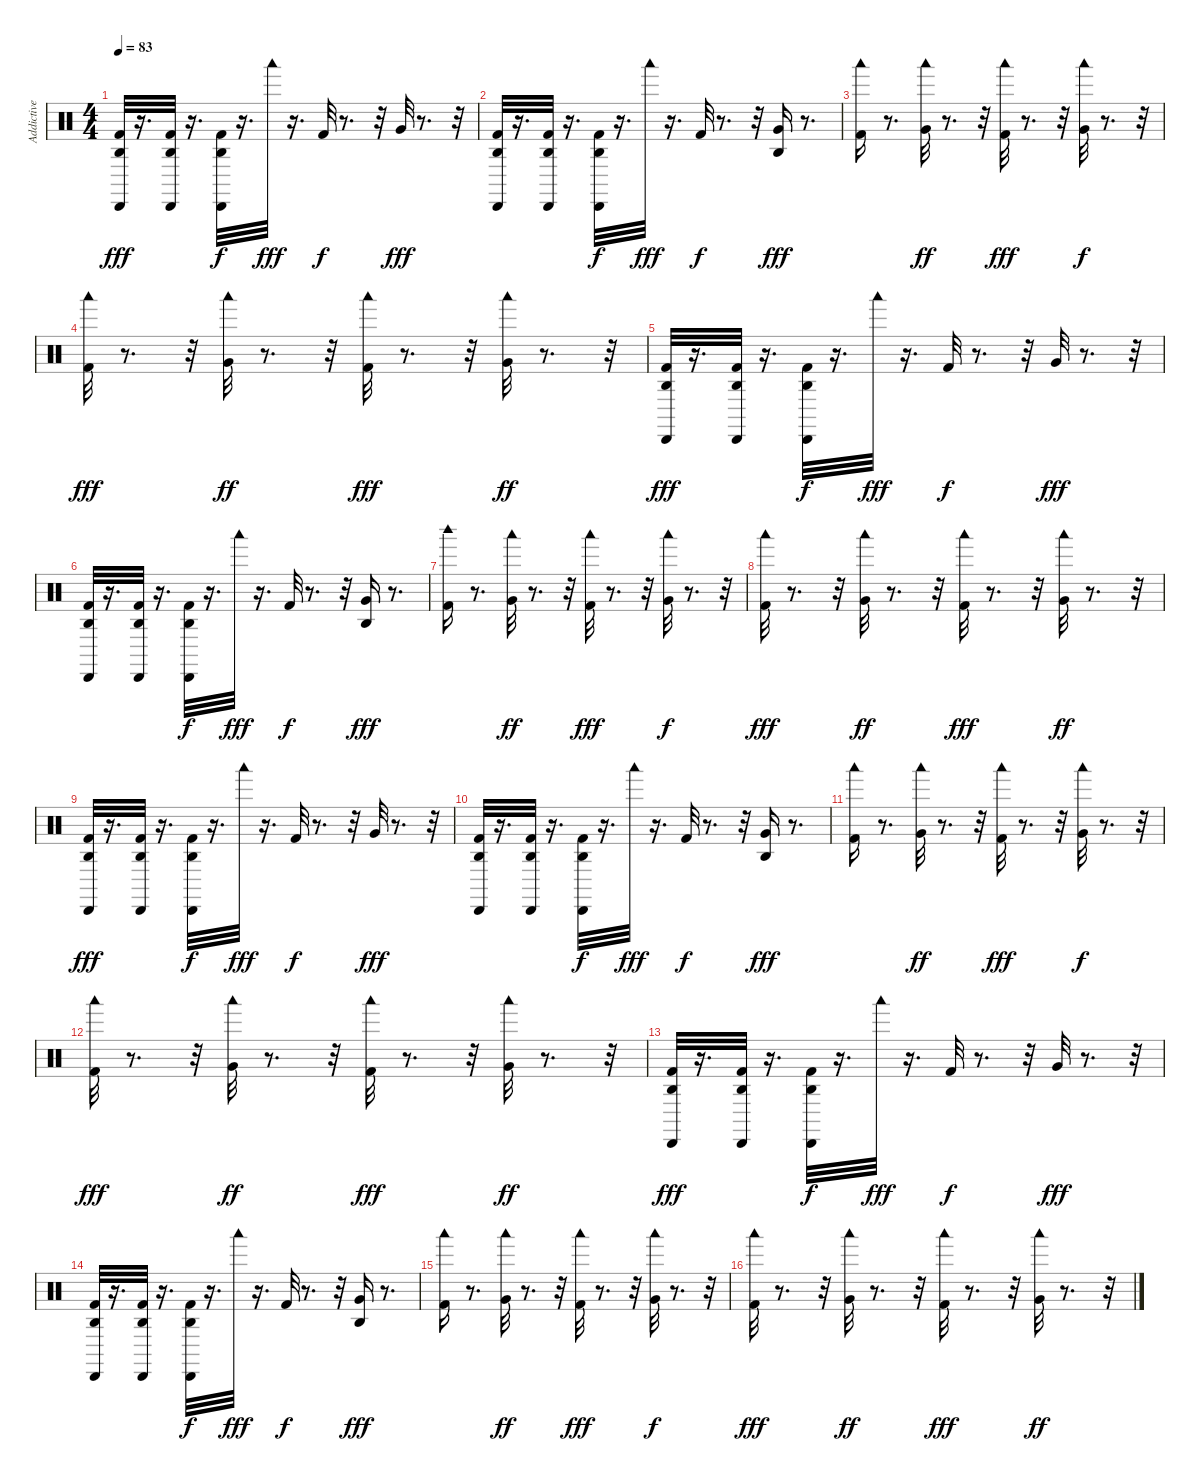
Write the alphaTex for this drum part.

\track ("Addictive Drums 2 01" "Addictive ") {instrument percussion}
\staff {score}
\articulation defaults
\ts (4 4)
\tempo 83
\clef neutral
\ks c
("Kick (hit) 2" "Cabasa (hit)" "Agogo high (hit)").32{dy fff} r.16{d} ("Kick (hit) 2" "Cabasa (hit)" "Agogo high (hit)").32 r.16{d} ("Cabasa (hit)" "Kick (hit) 2" "Agogo high (hit)").32{dy f} r.16{d} "Woodblock low (hit)".32{dy fff} r.16{d} "Kick (hit) 2".32{dy f} r.8{d} r.32 "Very Low Tom (hit)".32{dy fff} r.8{d} r.32 |
("Kick (hit) 2" "Cabasa (hit)" "Agogo high (hit)").32 r.16{d} ("Kick (hit) 2" "Cabasa (hit)" "Agogo high (hit)").32 r.16{d} ("Cabasa (hit)" "Kick (hit) 2" "Agogo high (hit)").32{dy f} r.16{d} "Woodblock low (hit)".32{dy fff} r.16{d} "Kick (hit) 2".32{dy f} r.8{d} r.32 ("Very Low Tom (hit)" "Agogo high (hit)").16{dy fff} r.8{d} |
("Woodblock low (hit)" "Kick (hit) 2").16 r.8{d} ("Woodblock low (hit)" "Very Low Tom (hit)").32{dy ff} r.8{d} r.32 ("Kick (hit) 2" "Woodblock low (hit)").32{dy fff} r.8{d} r.32 ("Very Low Tom (hit)" "Woodblock low (hit)").32{dy f} r.8{d} r.32 |
("Woodblock low (hit)" "Kick (hit) 2").32{dy fff} r.8{d} r.32 ("Very Low Tom (hit)" "Woodblock low (hit)").32{dy ff} r.8{d} r.32 ("Kick (hit) 2" "Woodblock low (hit)").32{dy fff} r.8{d} r.32 ("Very Low Tom (hit)" "Woodblock low (hit)").32{dy ff} r.8{d} r.32 |
("Kick (hit) 2" "Cabasa (hit)" "Agogo high (hit)").32{dy fff} r.16{d} ("Kick (hit) 2" "Cabasa (hit)" "Agogo high (hit)").32 r.16{d} ("Cabasa (hit)" "Kick (hit) 2" "Agogo high (hit)").32{dy f} r.16{d} "Woodblock low (hit)".32{dy fff} r.16{d} "Kick (hit) 2".32{dy f} r.8{d} r.32 "Very Low Tom (hit)".32{dy fff} r.8{d} r.32 |
("Kick (hit) 2" "Cabasa (hit)" "Agogo high (hit)").32 r.16{d} ("Kick (hit) 2" "Cabasa (hit)" "Agogo high (hit)").32 r.16{d} ("Cabasa (hit)" "Kick (hit) 2" "Agogo high (hit)").32{dy f} r.16{d} "Woodblock low (hit)".32{dy fff} r.16{d} "Kick (hit) 2".32{dy f} r.8{d} r.32 ("Very Low Tom (hit)" "Agogo high (hit)").16{dy fff} r.8{d} |
("Woodblock high (hit)" "Kick (hit) 2").16 r.8{d} ("Woodblock low (hit)" "Very Low Tom (hit)").32{dy ff} r.8{d} r.32 ("Kick (hit) 2" "Woodblock low (hit)").32{dy fff} r.8{d} r.32 ("Very Low Tom (hit)" "Woodblock low (hit)").32{dy f} r.8{d} r.32 |
("Woodblock low (hit)" "Kick (hit) 2").32{dy fff} r.8{d} r.32 ("Very Low Tom (hit)" "Woodblock low (hit)").32{dy ff} r.8{d} r.32 ("Kick (hit) 2" "Woodblock low (hit)").32{dy fff} r.8{d} r.32 ("Very Low Tom (hit)" "Woodblock low (hit)").32{dy ff} r.8{d} r.32 |
("Kick (hit) 2" "Cabasa (hit)" "Agogo high (hit)").32{dy fff} r.16{d} ("Kick (hit) 2" "Cabasa (hit)" "Agogo high (hit)").32 r.16{d} ("Cabasa (hit)" "Kick (hit) 2" "Agogo high (hit)").32{dy f} r.16{d} "Woodblock low (hit)".32{dy fff} r.16{d} "Kick (hit) 2".32{dy f} r.8{d} r.32 "Very Low Tom (hit)".32{dy fff} r.8{d} r.32 |
("Kick (hit) 2" "Cabasa (hit)" "Agogo high (hit)").32 r.16{d} ("Kick (hit) 2" "Cabasa (hit)" "Agogo high (hit)").32 r.16{d} ("Cabasa (hit)" "Kick (hit) 2" "Agogo high (hit)").32{dy f} r.16{d} "Woodblock low (hit)".32{dy fff} r.16{d} "Kick (hit) 2".32{dy f} r.8{d} r.32 ("Very Low Tom (hit)" "Agogo high (hit)").16{dy fff} r.8{d} |
("Woodblock low (hit)" "Kick (hit) 2").16 r.8{d} ("Woodblock low (hit)" "Very Low Tom (hit)").32{dy ff} r.8{d} r.32 ("Kick (hit) 2" "Woodblock low (hit)").32{dy fff} r.8{d} r.32 ("Very Low Tom (hit)" "Woodblock low (hit)").32{dy f} r.8{d} r.32 |
("Woodblock low (hit)" "Kick (hit) 2").32{dy fff} r.8{d} r.32 ("Very Low Tom (hit)" "Woodblock low (hit)").32{dy ff} r.8{d} r.32 ("Kick (hit) 2" "Woodblock low (hit)").32{dy fff} r.8{d} r.32 ("Very Low Tom (hit)" "Woodblock low (hit)").32{dy ff} r.8{d} r.32 |
("Kick (hit) 2" "Cabasa (hit)" "Agogo high (hit)").32{dy fff} r.16{d} ("Kick (hit) 2" "Cabasa (hit)" "Agogo high (hit)").32 r.16{d} ("Cabasa (hit)" "Kick (hit) 2" "Agogo high (hit)").32{dy f} r.16{d} "Woodblock low (hit)".32{dy fff} r.16{d} "Kick (hit) 2".32{dy f} r.8{d} r.32 "Very Low Tom (hit)".32{dy fff} r.8{d} r.32 |
("Kick (hit) 2" "Cabasa (hit)" "Agogo high (hit)").32 r.16{d} ("Kick (hit) 2" "Cabasa (hit)" "Agogo high (hit)").32 r.16{d} ("Cabasa (hit)" "Kick (hit) 2" "Agogo high (hit)").32{dy f} r.16{d} "Woodblock low (hit)".32{dy fff} r.16{d} "Kick (hit) 2".32{dy f} r.8{d} r.32 ("Very Low Tom (hit)" "Agogo high (hit)").16{dy fff} r.8{d} |
("Woodblock low (hit)" "Kick (hit) 2").16 r.8{d} ("Woodblock low (hit)" "Very Low Tom (hit)").32{dy ff} r.8{d} r.32 ("Kick (hit) 2" "Woodblock low (hit)").32{dy fff} r.8{d} r.32 ("Very Low Tom (hit)" "Woodblock low (hit)").32{dy f} r.8{d} r.32 |
("Woodblock low (hit)" "Kick (hit) 2").32{dy fff} r.8{d} r.32 ("Very Low Tom (hit)" "Woodblock low (hit)").32{dy ff} r.8{d} r.32 ("Kick (hit) 2" "Woodblock low (hit)").32{dy fff} r.8{d} r.32 ("Very Low Tom (hit)" "Woodblock low (hit)").32{dy ff} r.8{d} r.32
